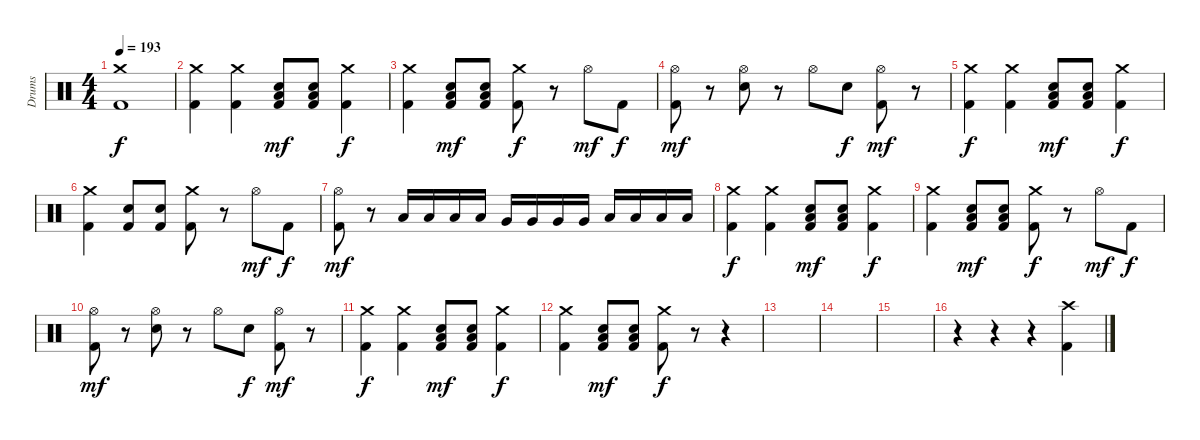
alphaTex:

\track ("Drums" "Drums") {instrument percussion}
\staff {score}
\articulation defaults
\ts (4 4)
\tempo 193
\clef neutral
\ks c
("Crash medium (hit)" "Kick (hit) 2").1{dy f} |
("Crash medium (hit)" "Kick (hit) 2").4 ("Crash medium (hit)" "Kick (hit) 2").4 ("Low Floor Tom (hit)" "Snare (hit) 2" "Kick (hit) 2").8{dy mf} ("Low Floor Tom (hit)" "Snare (hit) 2" "Kick (hit) 2").8 ("Crash medium (hit)" "Kick (hit) 2").4{dy f} |
("Crash medium (hit)" "Kick (hit) 2").4 ("Low Floor Tom (hit)" "Snare (hit) 2" "Kick (hit) 2").8{dy mf} ("Low Floor Tom (hit)" "Snare (hit) 2" "Kick (hit) 2").8 ("Crash medium (hit)" "Kick (hit) 2").8{dy f} r.8 "Hi-Hat (open)".8{dy mf} "Kick (hit) 2".8{dy f} |
("Hi-Hat (open)" "Kick (hit) 2").8{dy mf} r.8 ("Hi-Hat (open)" "Snare (hit) 2").8 r.8 "Hi-Hat (open)".8 "Snare (hit) 2".8{dy f} ("Hi-Hat (open)" "Kick (hit) 2").8{dy mf} r.8 |
("Crash medium (hit)" "Kick (hit) 2").4{dy f} ("Crash medium (hit)" "Kick (hit) 2").4 ("Low Floor Tom (hit)" "Snare (hit) 2" "Kick (hit) 2").8{dy mf} ("Low Floor Tom (hit)" "Snare (hit) 2" "Kick (hit) 2").8 ("Crash medium (hit)" "Kick (hit) 2").4{dy f} |
("Crash medium (hit)" "Kick (hit) 2").4 ("Snare (hit) 2" "Kick (hit) 2").8 ("Snare (hit) 2" "Kick (hit) 2").8 ("Crash medium (hit)" "Kick (hit) 2").8 r.8 "Hi-Hat (open)".8{dy mf} "Kick (hit) 2".8{dy f} |
("Hi-Hat (open)" "Kick (hit) 2").8{dy mf} r.8 "Low Tom (hit)".16 "Low Tom (hit)".16 "Low Tom (hit)".16 "Low Tom (hit)".16 "Very Low Tom (hit)".16 "Very Low Tom (hit)".16 "Very Low Tom (hit)".16 "Very Low Tom (hit)".16 "Low Floor Tom (hit)".16 "Low Floor Tom (hit)".16 "Low Floor Tom (hit)".16 "Low Floor Tom (hit)".16 |
("Crash medium (hit)" "Kick (hit) 2").4{dy f} ("Crash medium (hit)" "Kick (hit) 2").4 ("Low Floor Tom (hit)" "Snare (hit) 2" "Kick (hit) 2").8{dy mf} ("Low Floor Tom (hit)" "Snare (hit) 2" "Kick (hit) 2").8 ("Crash medium (hit)" "Kick (hit) 2").4{dy f} |
("Crash medium (hit)" "Kick (hit) 2").4 ("Low Floor Tom (hit)" "Snare (hit) 2" "Kick (hit) 2").8{dy mf} ("Low Floor Tom (hit)" "Snare (hit) 2" "Kick (hit) 2").8 ("Crash medium (hit)" "Kick (hit) 2").8{dy f} r.8 "Hi-Hat (open)".8{dy mf} "Kick (hit) 2".8{dy f} |
("Hi-Hat (open)" "Kick (hit) 2").8{dy mf} r.8 ("Hi-Hat (open)" "Snare (hit) 2").8 r.8 "Hi-Hat (open)".8 "Snare (hit) 2".8{dy f} ("Hi-Hat (open)" "Kick (hit) 2").8{dy mf} r.8 |
("Crash medium (hit)" "Kick (hit) 2").4{dy f} ("Crash medium (hit)" "Kick (hit) 2").4 ("Low Floor Tom (hit)" "Snare (hit) 2" "Kick (hit) 2").8{dy mf} ("Low Floor Tom (hit)" "Snare (hit) 2" "Kick (hit) 2").8 ("Crash medium (hit)" "Kick (hit) 2").4{dy f} |
("Crash medium (hit)" "Kick (hit) 2").4 ("Low Floor Tom (hit)" "Snare (hit) 2" "Kick (hit) 2").8{dy mf} ("Low Floor Tom (hit)" "Snare (hit) 2" "Kick (hit) 2").8 ("Crash medium (hit)" "Kick (hit) 2").8{dy f} r.8 r.4 |
|
|
|
r.4 r.4 r.4 ("Crash high (hit)" "Kick (hit) 2").4
